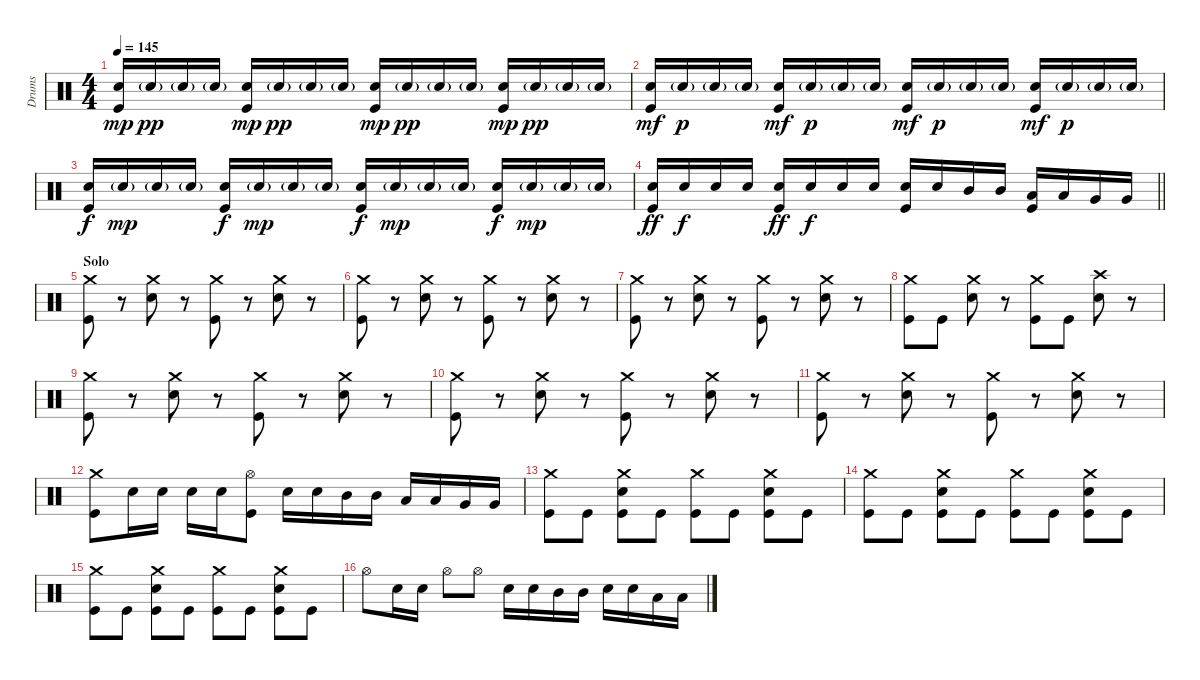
\track ("Drums" "Drums") {instrument percussion}
\staff {score}
\articulation defaults
\ts (4 4)
\tempo 145
\clef neutral
\ks c
("Snare (hit) 2" "Kick (hit)").16{dy mp} "Snare (hit) 2"{g}.16{dy pp} "Snare (hit) 2"{g}.16 "Snare (hit) 2"{g}.16 ("Snare (hit) 2" "Kick (hit)").16{dy mp} "Snare (hit) 2"{g}.16{dy pp} "Snare (hit) 2"{g}.16 "Snare (hit) 2"{g}.16 ("Snare (hit) 2" "Kick (hit)").16{dy mp} "Snare (hit) 2"{g}.16{dy pp} "Snare (hit) 2"{g}.16 "Snare (hit) 2"{g}.16 ("Snare (hit) 2" "Kick (hit)").16{dy mp} "Snare (hit) 2"{g}.16{dy pp} "Snare (hit) 2"{g}.16 "Snare (hit) 2"{g}.16 |
("Snare (hit) 2" "Kick (hit)").16{dy mf} "Snare (hit) 2"{g}.16{dy p} "Snare (hit) 2"{g}.16 "Snare (hit) 2"{g}.16 ("Snare (hit) 2" "Kick (hit)").16{dy mf} "Snare (hit) 2"{g}.16{dy p} "Snare (hit) 2"{g}.16 "Snare (hit) 2"{g}.16 ("Snare (hit) 2" "Kick (hit)").16{dy mf} "Snare (hit) 2"{g}.16{dy p} "Snare (hit) 2"{g}.16 "Snare (hit) 2"{g}.16 ("Snare (hit) 2" "Kick (hit)").16{dy mf} "Snare (hit) 2"{g}.16{dy p} "Snare (hit) 2"{g}.16 "Snare (hit) 2"{g}.16 |
("Snare (hit) 2" "Kick (hit)").16{dy f} "Snare (hit) 2"{g}.16{dy mp} "Snare (hit) 2"{g}.16 "Snare (hit) 2"{g}.16 ("Snare (hit) 2" "Kick (hit)").16{dy f} "Snare (hit) 2"{g}.16{dy mp} "Snare (hit) 2"{g}.16 "Snare (hit) 2"{g}.16 ("Snare (hit) 2" "Kick (hit)").16{dy f} "Snare (hit) 2"{g}.16{dy mp} "Snare (hit) 2"{g}.16 "Snare (hit) 2"{g}.16 ("Snare (hit) 2" "Kick (hit)").16{dy f} "Snare (hit) 2"{g}.16{dy mp} "Snare (hit) 2"{g}.16 "Snare (hit) 2"{g}.16 |
\barLineRight lightlight
("Snare (hit) 2" "Kick (hit)").16{dy ff} "Snare (hit) 2".16{dy f} "Snare (hit) 2".16 "Snare (hit) 2".16 ("Snare (hit) 2" "Kick (hit)").16{dy ff} "Snare (hit) 2".16{dy f} "Snare (hit) 2".16 "Snare (hit) 2".16 ("Snare (hit) 2" "Kick (hit)").16 "Snare (hit) 2".16 "Mid Tom (hit)".16 "Mid Tom (hit)".16 ("Low Tom (hit)" "Kick (hit)").16 "Low Tom (hit)".16 "Very Low Tom (hit)".16 "Very Low Tom (hit)".16 |
\section ("" "Solo")
("Crash medium (hit)" "Kick (hit)").8 r.8 ("Crash medium (hit)" "Snare (hit) 2").8 r.8 ("Crash medium (hit)" "Kick (hit)").8 r.8 ("Crash medium (hit)" "Snare (hit) 2").8 r.8 |
("Crash medium (hit)" "Kick (hit)").8 r.8 ("Crash medium (hit)" "Snare (hit) 2").8 r.8 ("Crash medium (hit)" "Kick (hit)").8 r.8 ("Crash medium (hit)" "Snare (hit) 2").8 r.8 |
("Crash medium (hit)" "Kick (hit)").8 r.8 ("Crash medium (hit)" "Snare (hit) 2").8 r.8 ("Crash medium (hit)" "Kick (hit)").8 r.8 ("Crash medium (hit)" "Snare (hit) 2").8 r.8 |
("Crash medium (hit)" "Kick (hit)").8 "Kick (hit)".8 ("Crash medium (hit)" "Snare (hit) 2").8 r.8 ("Crash medium (hit)" "Kick (hit)").8 "Kick (hit)".8 ("Crash high (hit)" "Snare (hit) 2").8 r.8 |
("Crash medium (hit)" "Kick (hit)").8 r.8 ("Crash medium (hit)" "Snare (hit) 2").8 r.8 ("Crash medium (hit)" "Kick (hit)").8 r.8 ("Crash medium (hit)" "Snare (hit) 2").8 r.8 |
("Crash medium (hit)" "Kick (hit)").8 r.8 ("Crash medium (hit)" "Snare (hit) 2").8 r.8 ("Crash medium (hit)" "Kick (hit)").8 r.8 ("Crash medium (hit)" "Snare (hit) 2").8 r.8 |
("Crash medium (hit)" "Kick (hit)").8 r.8 ("Crash medium (hit)" "Snare (hit) 2").8 r.8 ("Crash medium (hit)" "Kick (hit)").8 r.8 ("Crash medium (hit)" "Snare (hit) 2").8 r.8 |
("Crash medium (hit)" "Kick (hit)").8 "Snare (hit) 2".16 "Snare (hit) 2".16 "Snare (hit) 2".16 "Snare (hit) 2".16 ("Hi-Hat (open)" "Kick (hit)").8 "Snare (hit) 2".16 "Snare (hit) 2".16 "Mid Tom (hit)".16 "Mid Tom (hit)".16 "Low Tom (hit)".16 "Low Tom (hit)".16 "Very Low Tom (hit)".16 "Very Low Tom (hit)".16 |
("Crash medium (hit)" "Kick (hit)").8 "Kick (hit)".8 ("Crash medium (hit)" "Snare (hit) 2" "Kick (hit)").8 "Kick (hit)".8 ("Crash medium (hit)" "Kick (hit)").8 "Kick (hit)".8 ("Crash medium (hit)" "Snare (hit) 2" "Kick (hit)").8 "Kick (hit)".8 |
("Crash medium (hit)" "Kick (hit)").8 "Kick (hit)".8 ("Crash medium (hit)" "Snare (hit) 2" "Kick (hit)").8 "Kick (hit)".8 ("Crash medium (hit)" "Kick (hit)").8 "Kick (hit)".8 ("Crash medium (hit)" "Snare (hit) 2" "Kick (hit)").8 "Kick (hit)".8 |
("Crash medium (hit)" "Kick (hit)").8 "Kick (hit)".8 ("Crash medium (hit)" "Snare (hit) 2" "Kick (hit)").8 "Kick (hit)".8 ("Crash medium (hit)" "Kick (hit)").8 "Kick (hit)".8 ("Crash medium (hit)" "Snare (hit) 2" "Kick (hit)").8 "Kick (hit)".8 |
"Hi-Hat (open)".8 "Snare (hit) 2".16 "Snare (hit) 2".16 "Hi-Hat (open)".8 "Hi-Hat (open)".8 "Snare (hit) 2".16 "Snare (hit) 2".16 "Mid Tom (hit)".16 "Mid Tom (hit)".16 "Snare (hit) 2".16 "Snare (hit) 2".16 "Low Tom (hit)".16 "Low Tom (hit)".16
